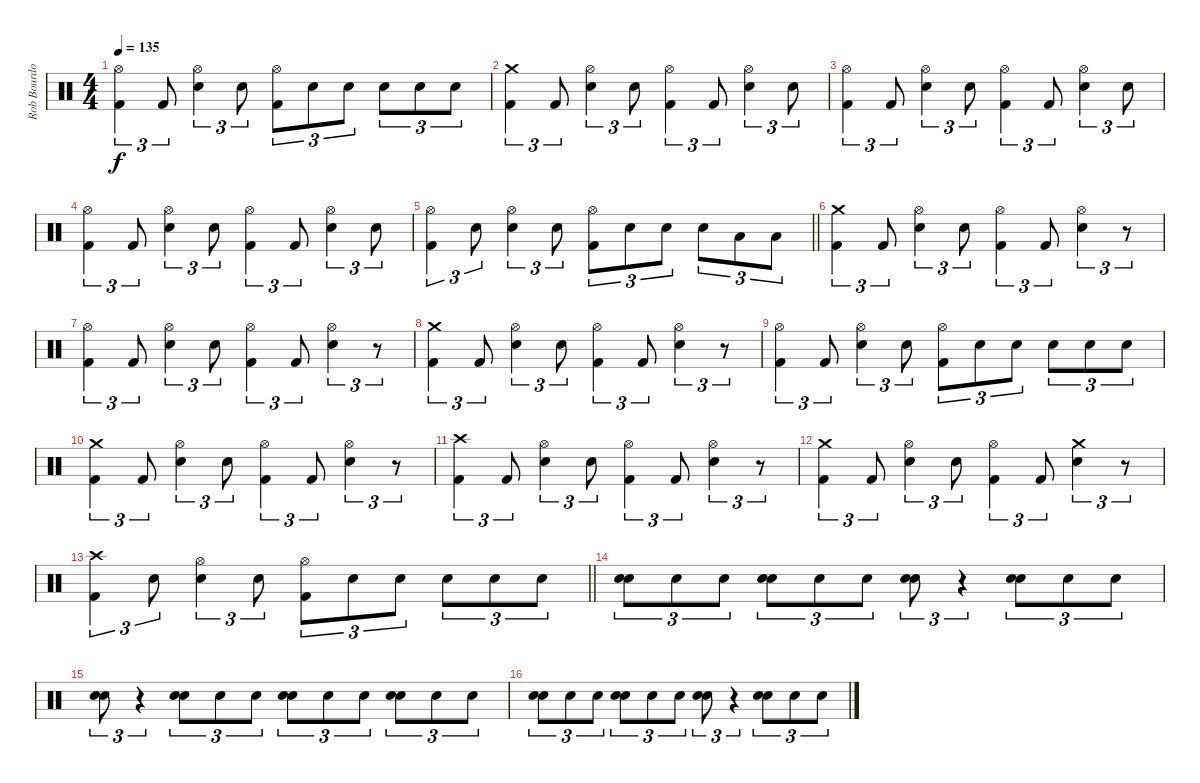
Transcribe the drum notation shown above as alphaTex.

\track ("Rob Bourdon [Drums]" "Rob Bourdo") {instrument percussion bank 5}
\staff {score}
\articulation defaults
\ts (4 4)
\tempo 135
\clef neutral
\ks c
("Hi-Hat (open)" "Kick (hit) 2").4{tu (3 2) dy f} "Kick (hit) 2".8{tu (3 2)} ("Hi-Hat (open)" "Electric Snare (hit)").4{tu (3 2)} "Electric Snare (hit)".8{tu (3 2)} ("Hi-Hat (open)" "Kick (hit) 2").8{tu (3 2)} "Electric Snare (hit)".8{tu (3 2)} "Electric Snare (hit)".8{tu (3 2)} "Electric Snare (hit)".8{tu (3 2)} "Electric Snare (hit)".8{tu (3 2)} "Electric Snare (hit)".8{tu (3 2)} |
("Crash medium (hit)" "Kick (hit) 2").4{tu (3 2)} "Kick (hit) 2".8{tu (3 2)} ("Hi-Hat (open)" "Electric Snare (hit)").4{tu (3 2)} "Electric Snare (hit)".8{tu (3 2)} ("Hi-Hat (open)" "Kick (hit) 2").4{tu (3 2)} "Kick (hit) 2".8{tu (3 2)} ("Hi-Hat (open)" "Electric Snare (hit)").4{tu (3 2)} "Electric Snare (hit)".8{tu (3 2)} |
("Hi-Hat (open)" "Kick (hit) 2").4{tu (3 2)} "Kick (hit) 2".8{tu (3 2)} ("Hi-Hat (open)" "Electric Snare (hit)").4{tu (3 2)} "Electric Snare (hit)".8{tu (3 2)} ("Hi-Hat (open)" "Kick (hit) 2").4{tu (3 2)} "Kick (hit) 2".8{tu (3 2)} ("Hi-Hat (open)" "Electric Snare (hit)").4{tu (3 2)} "Electric Snare (hit)".8{tu (3 2)} |
("Hi-Hat (open)" "Kick (hit) 2").4{tu (3 2)} "Kick (hit) 2".8{tu (3 2)} ("Hi-Hat (open)" "Electric Snare (hit)").4{tu (3 2)} "Electric Snare (hit)".8{tu (3 2)} ("Hi-Hat (open)" "Kick (hit) 2").4{tu (3 2)} "Kick (hit) 2".8{tu (3 2)} ("Hi-Hat (open)" "Electric Snare (hit)").4{tu (3 2)} "Electric Snare (hit)".8{tu (3 2)} |
\barLineRight lightlight
("Hi-Hat (open)" "Kick (hit) 2").4{tu (3 2)} "Electric Snare (hit)".8{tu (3 2)} ("Hi-Hat (open)" "Electric Snare (hit)").4{tu (3 2)} "Electric Snare (hit)".8{tu (3 2)} ("Hi-Hat (open)" "Kick (hit) 2").8{tu (3 2)} "Electric Snare (hit)".8{tu (3 2)} "Electric Snare (hit)".8{tu (3 2)} "Electric Snare (hit)".8{tu (3 2)} "Low Tom (hit)".8{tu (3 2)} "Low Tom (hit)".8{tu (3 2)} |
("Crash medium (hit)" "Kick (hit) 2").4{tu (3 2)} "Kick (hit) 2".8{tu (3 2)} ("Hi-Hat (open)" "Electric Snare (hit)").4{tu (3 2)} "Electric Snare (hit)".8{tu (3 2)} ("Hi-Hat (open)" "Kick (hit) 2").4{tu (3 2)} "Kick (hit) 2".8{tu (3 2)} ("Hi-Hat (open)" "Electric Snare (hit)").4{tu (3 2)} r.8{tu (3 2)} |
("Hi-Hat (open)" "Kick (hit) 2").4{tu (3 2)} "Kick (hit) 2".8{tu (3 2)} ("Hi-Hat (open)" "Electric Snare (hit)").4{tu (3 2)} "Electric Snare (hit)".8{tu (3 2)} ("Hi-Hat (open)" "Kick (hit) 2").4{tu (3 2)} "Kick (hit) 2".8{tu (3 2)} ("Hi-Hat (open)" "Electric Snare (hit)").4{tu (3 2)} r.8{tu (3 2)} |
("Crash medium (hit)" "Kick (hit) 2").4{tu (3 2)} "Kick (hit) 2".8{tu (3 2)} ("Hi-Hat (open)" "Electric Snare (hit)").4{tu (3 2)} "Electric Snare (hit)".8{tu (3 2)} ("Hi-Hat (open)" "Kick (hit) 2").4{tu (3 2)} "Kick (hit) 2".8{tu (3 2)} ("Hi-Hat (open)" "Electric Snare (hit)").4{tu (3 2)} r.8{tu (3 2)} |
("Hi-Hat (open)" "Kick (hit) 2").4{tu (3 2)} "Kick (hit) 2".8{tu (3 2)} ("Hi-Hat (open)" "Electric Snare (hit)").4{tu (3 2)} "Electric Snare (hit)".8{tu (3 2)} ("Hi-Hat (open)" "Kick (hit) 2").8{tu (3 2)} "Electric Snare (hit)".8{tu (3 2)} "Electric Snare (hit)".8{tu (3 2)} "Electric Snare (hit)".8{tu (3 2)} "Electric Snare (hit)".8{tu (3 2)} "Electric Snare (hit)".8{tu (3 2)} |
("Crash medium (hit)" "Kick (hit) 2").4{tu (3 2)} "Kick (hit) 2".8{tu (3 2)} ("Hi-Hat (open)" "Electric Snare (hit)").4{tu (3 2)} "Electric Snare (hit)".8{tu (3 2)} ("Hi-Hat (open)" "Kick (hit) 2").4{tu (3 2)} "Kick (hit) 2".8{tu (3 2)} ("Hi-Hat (open)" "Electric Snare (hit)").4{tu (3 2)} r.8{tu (3 2)} |
("Crash high (hit)" "Kick (hit) 2").4{tu (3 2)} "Kick (hit) 2".8{tu (3 2)} ("Hi-Hat (open)" "Electric Snare (hit)").4{tu (3 2)} "Electric Snare (hit)".8{tu (3 2)} ("Hi-Hat (open)" "Kick (hit) 2").4{tu (3 2)} "Kick (hit) 2".8{tu (3 2)} ("Hi-Hat (open)" "Electric Snare (hit)").4{tu (3 2)} r.8{tu (3 2)} |
("Crash medium (hit)" "Kick (hit) 2").4{tu (3 2)} "Kick (hit) 2".8{tu (3 2)} ("Hi-Hat (open)" "Electric Snare (hit)").4{tu (3 2)} "Electric Snare (hit)".8{tu (3 2)} ("Hi-Hat (open)" "Kick (hit) 2").4{tu (3 2)} "Kick (hit) 2".8{tu (3 2)} ("Crash medium (hit)" "Electric Snare (hit)").4{tu (3 2)} r.8{tu (3 2)} |
\barLineRight lightlight
("Crash high (hit)" "Kick (hit) 2").4{tu (3 2)} "Electric Snare (hit)".8{tu (3 2)} ("Hi-Hat (open)" "Electric Snare (hit)").4{tu (3 2)} "Electric Snare (hit)".8{tu (3 2)} ("Hi-Hat (open)" "Kick (hit) 2").8{tu (3 2)} "Electric Snare (hit)".8{tu (3 2)} "Electric Snare (hit)".8{tu (3 2)} "Electric Snare (hit)".8{tu (3 2)} "Electric Snare (hit)".8{tu (3 2)} "Electric Snare (hit)".8{tu (3 2)} |
("Hand Clap (hit)" "Electric Snare (hit)").8{tu (3 2)} "Electric Snare (hit)".8{tu (3 2)} "Electric Snare (hit)".8{tu (3 2)} ("Hand Clap (hit)" "Electric Snare (hit)").8{tu (3 2)} "Electric Snare (hit)".8{tu (3 2)} "Electric Snare (hit)".8{tu (3 2)} ("Hand Clap (hit)" "Electric Snare (hit)").8{tu (3 2)} r.4{tu (3 2)} ("Hand Clap (hit)" "Electric Snare (hit)").8{tu (3 2)} "Electric Snare (hit)".8{tu (3 2)} "Electric Snare (hit)".8{tu (3 2)} |
("Hand Clap (hit)" "Electric Snare (hit)").8{tu (3 2)} r.4{tu (3 2)} ("Hand Clap (hit)" "Electric Snare (hit)").8{tu (3 2)} "Electric Snare (hit)".8{tu (3 2)} "Electric Snare (hit)".8{tu (3 2)} ("Hand Clap (hit)" "Electric Snare (hit)").8{tu (3 2)} "Electric Snare (hit)".8{tu (3 2)} "Electric Snare (hit)".8{tu (3 2)} ("Hand Clap (hit)" "Electric Snare (hit)").8{tu (3 2)} "Electric Snare (hit)".8{tu (3 2)} "Electric Snare (hit)".8{tu (3 2)} |
("Hand Clap (hit)" "Electric Snare (hit)").8{tu (3 2)} "Electric Snare (hit)".8{tu (3 2)} "Electric Snare (hit)".8{tu (3 2)} ("Hand Clap (hit)" "Electric Snare (hit)").8{tu (3 2)} "Electric Snare (hit)".8{tu (3 2)} "Electric Snare (hit)".8{tu (3 2)} ("Hand Clap (hit)" "Electric Snare (hit)").8{tu (3 2)} r.4{tu (3 2)} ("Hand Clap (hit)" "Electric Snare (hit)").8{tu (3 2)} "Electric Snare (hit)".8{tu (3 2)} "Electric Snare (hit)".8{tu (3 2)}
